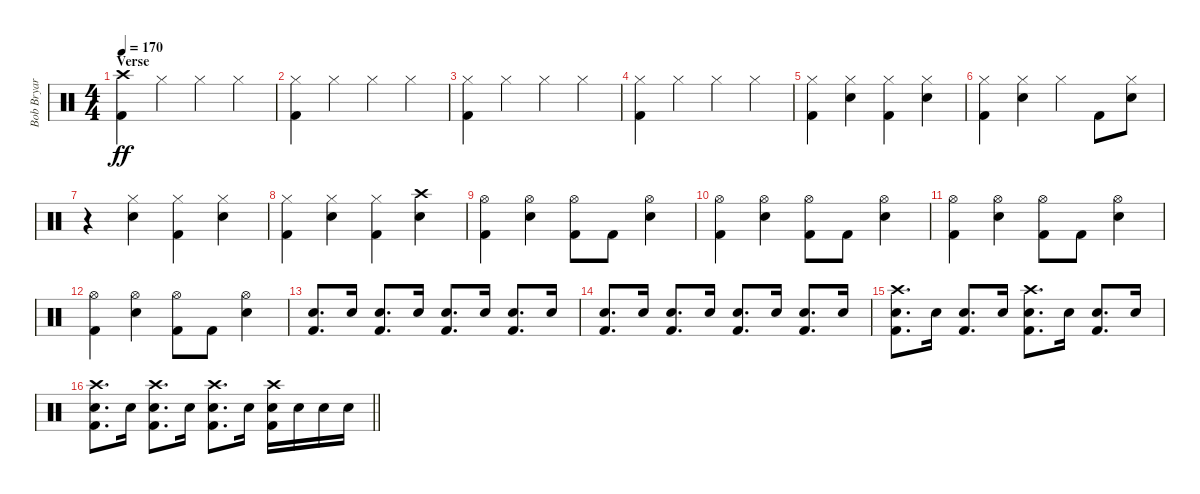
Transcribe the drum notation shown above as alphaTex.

\track ("Bob Bryar - Drums" "Bob Bryar ") {instrument percussion}
\staff {score}
\articulation defaults
\ts (4 4)
\section ("" "Verse")
\tempo 170
\clef neutral
\ks c
("Crash high (hit)" "Kick (hit) 2").4{dy ff} "Hi-Hat (closed)".4 "Hi-Hat (closed)".4 "Hi-Hat (closed)".4 |
("Hi-Hat (closed)" "Kick (hit) 2").4 "Hi-Hat (closed)".4 "Hi-Hat (closed)".4 "Hi-Hat (closed)".4 |
("Hi-Hat (closed)" "Kick (hit) 2").4 "Hi-Hat (closed)".4 "Hi-Hat (closed)".4 "Hi-Hat (closed)".4 |
("Hi-Hat (closed)" "Kick (hit) 2").4 "Hi-Hat (closed)".4 "Hi-Hat (closed)".4 "Hi-Hat (closed)".4 |
("Hi-Hat (closed)" "Kick (hit) 2").4 ("Hi-Hat (closed)" "Snare (hit) 2").4 ("Hi-Hat (closed)" "Kick (hit) 2").4 ("Hi-Hat (closed)" "Snare (hit) 2").4 |
("Hi-Hat (closed)" "Kick (hit) 2").4 ("Hi-Hat (closed)" "Snare (hit) 2").4 "Hi-Hat (closed)".4 "Kick (hit) 2".8 ("Hi-Hat (closed)" "Snare (hit) 2").8 |
r.4 ("Hi-Hat (closed)" "Snare (hit) 2").4 ("Hi-Hat (closed)" "Kick (hit) 2").4 ("Hi-Hat (closed)" "Snare (hit) 2").4 |
("Hi-Hat (closed)" "Kick (hit) 2").4 ("Hi-Hat (closed)" "Snare (hit) 2").4 ("Hi-Hat (closed)" "Kick (hit) 2").4 ("Crash high (hit)" "Snare (hit) 2").4 |
("Hi-Hat (open)" "Kick (hit) 2").4 ("Snare (hit) 2" "Hi-Hat (open)").4 ("Kick (hit) 2" "Hi-Hat (open)").8 "Kick (hit) 2".8 ("Snare (hit) 2" "Hi-Hat (open)").4 |
("Hi-Hat (open)" "Kick (hit) 2").4 ("Snare (hit) 2" "Hi-Hat (open)").4 ("Kick (hit) 2" "Hi-Hat (open)").8 "Kick (hit) 2".8 ("Snare (hit) 2" "Hi-Hat (open)").4 |
("Hi-Hat (open)" "Kick (hit) 2").4 ("Snare (hit) 2" "Hi-Hat (open)").4 ("Kick (hit) 2" "Hi-Hat (open)").8 "Kick (hit) 2".8 ("Snare (hit) 2" "Hi-Hat (open)").4 |
("Hi-Hat (open)" "Kick (hit) 2").4 ("Snare (hit) 2" "Hi-Hat (open)").4 ("Kick (hit) 2" "Hi-Hat (open)").8 "Kick (hit) 2".8 ("Snare (hit) 2" "Hi-Hat (open)").4 |
("Snare (hit) 2" "Kick (hit) 2").8{d} "Snare (hit) 2".16 ("Snare (hit) 2" "Kick (hit) 2").8{d} "Snare (hit) 2".16 ("Snare (hit) 2" "Kick (hit) 2").8{d} "Snare (hit) 2".16 ("Snare (hit) 2" "Kick (hit) 2").8{d} "Snare (hit) 2".16 |
("Snare (hit) 2" "Kick (hit) 2").8{d} "Snare (hit) 2".16 ("Snare (hit) 2" "Kick (hit) 2").8{d} "Snare (hit) 2".16 ("Snare (hit) 2" "Kick (hit) 2").8{d} "Snare (hit) 2".16 ("Snare (hit) 2" "Kick (hit) 2").8{d} "Snare (hit) 2".16 |
("Snare (hit) 2" "Kick (hit) 2" "Crash high (hit)").8{d} "Snare (hit) 2".16 ("Snare (hit) 2" "Kick (hit) 2").8{d} "Snare (hit) 2".16 ("Snare (hit) 2" "Kick (hit) 2" "Crash high (hit)").8{d} "Snare (hit) 2".16 ("Snare (hit) 2" "Kick (hit) 2").8{d} "Snare (hit) 2".16 |
\barLineRight lightlight
("Snare (hit) 2" "Kick (hit) 2" "Crash high (hit)").8{d} "Snare (hit) 2".16 ("Snare (hit) 2" "Kick (hit) 2" "Crash high (hit)").8{d} "Snare (hit) 2".16 ("Snare (hit) 2" "Kick (hit) 2" "Crash high (hit)").8{d} "Snare (hit) 2".16 ("Snare (hit) 2" "Kick (hit) 2" "Crash high (hit)").16 "Snare (hit) 2".16 "Snare (hit) 2".16 "Snare (hit) 2".16
